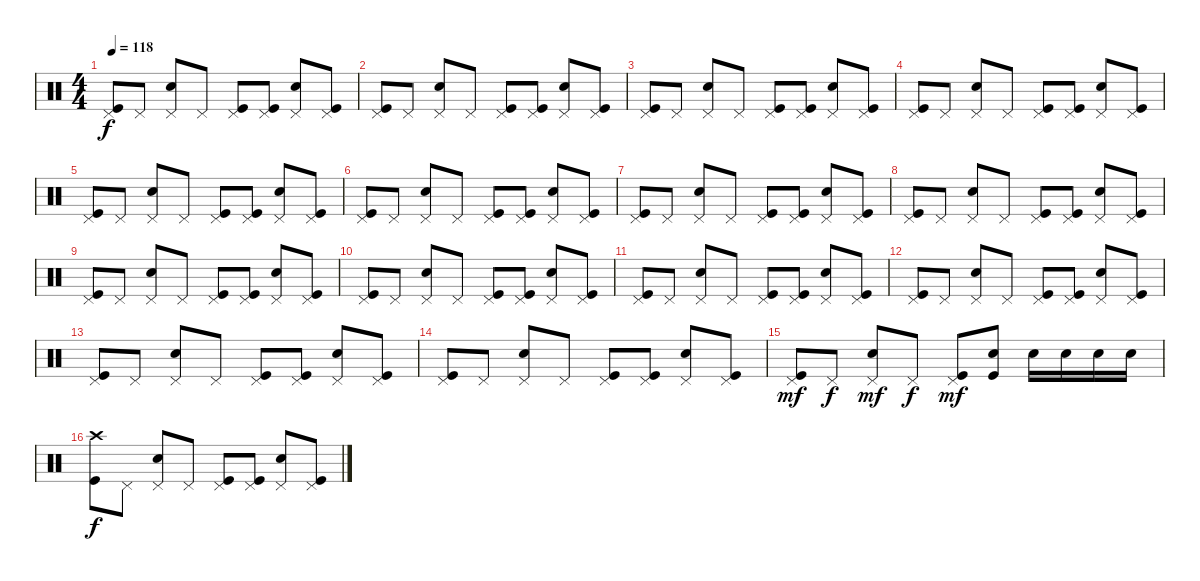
\track "" {instrument percussion}
\staff {score}
\articulation defaults
\ts (4 4)
\tempo 118
\clef neutral
\ks c
("Pedal Hi-Hat (hit)" "Kick (hit)").8{dy f} "Pedal Hi-Hat (hit)".8 ("Pedal Hi-Hat (hit)" "Snare (hit) 2").8 "Pedal Hi-Hat (hit)".8 ("Pedal Hi-Hat (hit)" "Kick (hit)").8 ("Pedal Hi-Hat (hit)" "Kick (hit)").8 ("Pedal Hi-Hat (hit)" "Snare (hit) 2").8 ("Pedal Hi-Hat (hit)" "Kick (hit)").8 |
("Pedal Hi-Hat (hit)" "Kick (hit)").8 "Pedal Hi-Hat (hit)".8 ("Pedal Hi-Hat (hit)" "Snare (hit) 2").8 "Pedal Hi-Hat (hit)".8 ("Pedal Hi-Hat (hit)" "Kick (hit)").8 ("Pedal Hi-Hat (hit)" "Kick (hit)").8 ("Pedal Hi-Hat (hit)" "Snare (hit) 2").8 ("Pedal Hi-Hat (hit)" "Kick (hit)").8 |
("Pedal Hi-Hat (hit)" "Kick (hit)").8 "Pedal Hi-Hat (hit)".8 ("Pedal Hi-Hat (hit)" "Snare (hit) 2").8 "Pedal Hi-Hat (hit)".8 ("Pedal Hi-Hat (hit)" "Kick (hit)").8 ("Pedal Hi-Hat (hit)" "Kick (hit)").8 ("Pedal Hi-Hat (hit)" "Snare (hit) 2").8 ("Pedal Hi-Hat (hit)" "Kick (hit)").8 |
("Pedal Hi-Hat (hit)" "Kick (hit)").8 "Pedal Hi-Hat (hit)".8 ("Pedal Hi-Hat (hit)" "Snare (hit) 2").8 "Pedal Hi-Hat (hit)".8 ("Pedal Hi-Hat (hit)" "Kick (hit)").8 ("Pedal Hi-Hat (hit)" "Kick (hit)").8 ("Pedal Hi-Hat (hit)" "Snare (hit) 2").8 ("Pedal Hi-Hat (hit)" "Kick (hit)").8 |
("Pedal Hi-Hat (hit)" "Kick (hit)").8 "Pedal Hi-Hat (hit)".8 ("Pedal Hi-Hat (hit)" "Snare (hit) 2").8 "Pedal Hi-Hat (hit)".8 ("Pedal Hi-Hat (hit)" "Kick (hit)").8 ("Pedal Hi-Hat (hit)" "Kick (hit)").8 ("Pedal Hi-Hat (hit)" "Snare (hit) 2").8 ("Pedal Hi-Hat (hit)" "Kick (hit)").8 |
("Pedal Hi-Hat (hit)" "Kick (hit)").8 "Pedal Hi-Hat (hit)".8 ("Pedal Hi-Hat (hit)" "Snare (hit) 2").8 "Pedal Hi-Hat (hit)".8 ("Pedal Hi-Hat (hit)" "Kick (hit)").8 ("Pedal Hi-Hat (hit)" "Kick (hit)").8 ("Pedal Hi-Hat (hit)" "Snare (hit) 2").8 ("Pedal Hi-Hat (hit)" "Kick (hit)").8 |
("Pedal Hi-Hat (hit)" "Kick (hit)").8 "Pedal Hi-Hat (hit)".8 ("Pedal Hi-Hat (hit)" "Snare (hit) 2").8 "Pedal Hi-Hat (hit)".8 ("Pedal Hi-Hat (hit)" "Kick (hit)").8 ("Pedal Hi-Hat (hit)" "Kick (hit)").8 ("Pedal Hi-Hat (hit)" "Snare (hit) 2").8 ("Pedal Hi-Hat (hit)" "Kick (hit)").8 |
("Pedal Hi-Hat (hit)" "Kick (hit)").8 "Pedal Hi-Hat (hit)".8 ("Pedal Hi-Hat (hit)" "Snare (hit) 2").8 "Pedal Hi-Hat (hit)".8 ("Pedal Hi-Hat (hit)" "Kick (hit)").8 ("Pedal Hi-Hat (hit)" "Kick (hit)").8 ("Pedal Hi-Hat (hit)" "Snare (hit) 2").8 ("Pedal Hi-Hat (hit)" "Kick (hit)").8 |
("Pedal Hi-Hat (hit)" "Kick (hit)").8 "Pedal Hi-Hat (hit)".8 ("Pedal Hi-Hat (hit)" "Snare (hit) 2").8 "Pedal Hi-Hat (hit)".8 ("Pedal Hi-Hat (hit)" "Kick (hit)").8 ("Pedal Hi-Hat (hit)" "Kick (hit)").8 ("Pedal Hi-Hat (hit)" "Snare (hit) 2").8 ("Pedal Hi-Hat (hit)" "Kick (hit)").8 |
("Pedal Hi-Hat (hit)" "Kick (hit)").8 "Pedal Hi-Hat (hit)".8 ("Pedal Hi-Hat (hit)" "Snare (hit) 2").8 "Pedal Hi-Hat (hit)".8 ("Pedal Hi-Hat (hit)" "Kick (hit)").8 ("Pedal Hi-Hat (hit)" "Kick (hit)").8 ("Pedal Hi-Hat (hit)" "Snare (hit) 2").8 ("Pedal Hi-Hat (hit)" "Kick (hit)").8 |
("Pedal Hi-Hat (hit)" "Kick (hit)").8 "Pedal Hi-Hat (hit)".8 ("Pedal Hi-Hat (hit)" "Snare (hit) 2").8 "Pedal Hi-Hat (hit)".8 ("Pedal Hi-Hat (hit)" "Kick (hit)").8 ("Pedal Hi-Hat (hit)" "Kick (hit)").8 ("Pedal Hi-Hat (hit)" "Snare (hit) 2").8 ("Pedal Hi-Hat (hit)" "Kick (hit)").8 |
("Pedal Hi-Hat (hit)" "Kick (hit)").8 "Pedal Hi-Hat (hit)".8 ("Pedal Hi-Hat (hit)" "Snare (hit) 2").8 "Pedal Hi-Hat (hit)".8 ("Pedal Hi-Hat (hit)" "Kick (hit)").8 ("Pedal Hi-Hat (hit)" "Kick (hit)").8 ("Pedal Hi-Hat (hit)" "Snare (hit) 2").8 ("Pedal Hi-Hat (hit)" "Kick (hit)").8 |
("Pedal Hi-Hat (hit)" "Kick (hit)").8 "Pedal Hi-Hat (hit)".8 ("Pedal Hi-Hat (hit)" "Snare (hit) 2").8 "Pedal Hi-Hat (hit)".8 ("Pedal Hi-Hat (hit)" "Kick (hit)").8 ("Pedal Hi-Hat (hit)" "Kick (hit)").8 ("Pedal Hi-Hat (hit)" "Snare (hit) 2").8 ("Pedal Hi-Hat (hit)" "Kick (hit)").8 |
("Pedal Hi-Hat (hit)" "Kick (hit)").8 "Pedal Hi-Hat (hit)".8 ("Pedal Hi-Hat (hit)" "Snare (hit) 2").8 "Pedal Hi-Hat (hit)".8 ("Pedal Hi-Hat (hit)" "Kick (hit)").8 ("Pedal Hi-Hat (hit)" "Kick (hit)").8 ("Pedal Hi-Hat (hit)" "Snare (hit) 2").8 ("Pedal Hi-Hat (hit)" "Kick (hit)").8 |
("Pedal Hi-Hat (hit)" "Kick (hit)").8{dy mf} "Pedal Hi-Hat (hit)".8{dy f} ("Pedal Hi-Hat (hit)" "Snare (hit) 2").8{dy mf} "Pedal Hi-Hat (hit)".8{dy f} ("Pedal Hi-Hat (hit)" "Kick (hit)").8{dy mf} ("Snare (hit) 2" "Kick (hit)").8 "Snare (hit) 2".16 "Snare (hit) 2".16 "Snare (hit) 2".16 "Snare (hit) 2".16 |
("Crash high (hit)" "Kick (hit)").8{dy f} "Pedal Hi-Hat (hit)".8 ("Pedal Hi-Hat (hit)" "Snare (hit) 2").8 "Pedal Hi-Hat (hit)".8 ("Pedal Hi-Hat (hit)" "Kick (hit)").8 ("Pedal Hi-Hat (hit)" "Kick (hit)").8 ("Pedal Hi-Hat (hit)" "Snare (hit) 2").8 ("Pedal Hi-Hat (hit)" "Kick (hit)").8
